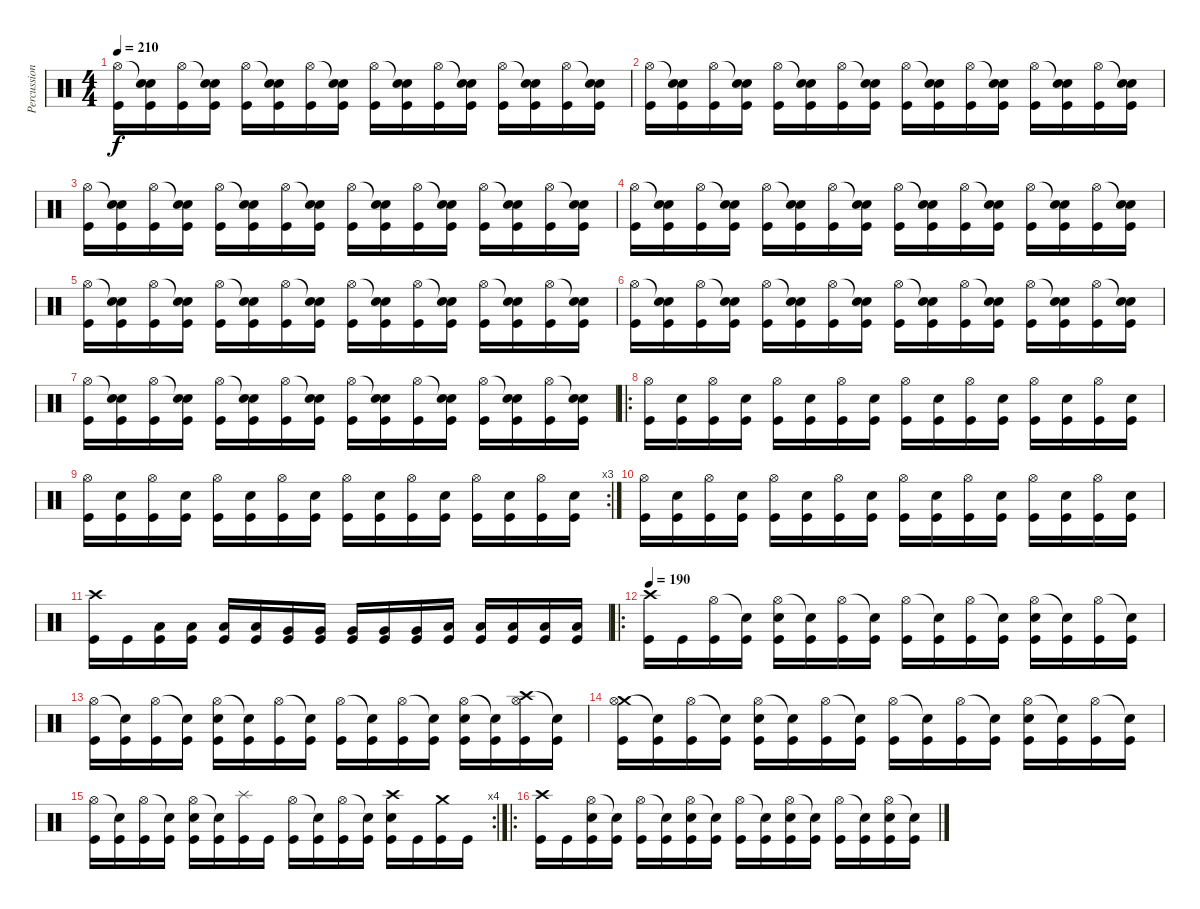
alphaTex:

\track ("Percussion" "Percussion") {instrument percussion}
\staff {score}
\articulation defaults
\ts (4 4)
\tempo 210
\clef neutral
\ks c
("Hi-Hat (open)" "Kick (hit)").16{dy f} ("Snare (hit)"{t} "Electric Snare (hit)" "Kick (hit)").16 ("Hi-Hat (open)" "Kick (hit)").16 ("Snare (hit)"{t} "Electric Snare (hit)" "Kick (hit)").16 ("Hi-Hat (open)" "Kick (hit)").16 ("Snare (hit)"{t} "Electric Snare (hit)" "Kick (hit)").16 ("Hi-Hat (open)" "Kick (hit)").16 ("Snare (hit)"{t} "Electric Snare (hit)" "Kick (hit)").16 ("Hi-Hat (open)" "Kick (hit)").16 ("Snare (hit)"{t} "Electric Snare (hit)" "Kick (hit)").16 ("Hi-Hat (open)" "Kick (hit)").16 ("Snare (hit)"{t} "Electric Snare (hit)" "Kick (hit)").16 ("Hi-Hat (open)" "Kick (hit)").16 ("Snare (hit)"{t} "Electric Snare (hit)" "Kick (hit)").16 ("Hi-Hat (open)" "Kick (hit)").16 ("Snare (hit)"{t} "Electric Snare (hit)" "Kick (hit)").16 |
("Hi-Hat (open)" "Kick (hit)").16 ("Snare (hit)"{t} "Electric Snare (hit)" "Kick (hit)").16 ("Hi-Hat (open)" "Kick (hit)").16 ("Snare (hit)"{t} "Electric Snare (hit)" "Kick (hit)").16 ("Hi-Hat (open)" "Kick (hit)").16 ("Snare (hit)"{t} "Electric Snare (hit)" "Kick (hit)").16 ("Hi-Hat (open)" "Kick (hit)").16 ("Snare (hit)"{t} "Electric Snare (hit)" "Kick (hit)").16 ("Hi-Hat (open)" "Kick (hit)").16 ("Snare (hit)"{t} "Electric Snare (hit)" "Kick (hit)").16 ("Hi-Hat (open)" "Kick (hit)").16 ("Snare (hit)"{t} "Electric Snare (hit)" "Kick (hit)").16 ("Hi-Hat (open)" "Kick (hit)").16 ("Snare (hit)"{t} "Electric Snare (hit)" "Kick (hit)").16 ("Hi-Hat (open)" "Kick (hit)").16 ("Snare (hit)"{t} "Electric Snare (hit)" "Kick (hit)").16 |
("Hi-Hat (open)" "Kick (hit)").16 ("Snare (hit)"{t} "Electric Snare (hit)" "Kick (hit)").16 ("Hi-Hat (open)" "Kick (hit)").16 ("Snare (hit)"{t} "Electric Snare (hit)" "Kick (hit)").16 ("Hi-Hat (open)" "Kick (hit)").16 ("Snare (hit)"{t} "Electric Snare (hit)" "Kick (hit)").16 ("Hi-Hat (open)" "Kick (hit)").16 ("Snare (hit)"{t} "Electric Snare (hit)" "Kick (hit)").16 ("Hi-Hat (open)" "Kick (hit)").16 ("Snare (hit)"{t} "Electric Snare (hit)" "Kick (hit)").16 ("Hi-Hat (open)" "Kick (hit)").16 ("Snare (hit)"{t} "Electric Snare (hit)" "Kick (hit)").16 ("Hi-Hat (open)" "Kick (hit)").16 ("Snare (hit)"{t} "Electric Snare (hit)" "Kick (hit)").16 ("Hi-Hat (open)" "Kick (hit)").16 ("Snare (hit)"{t} "Electric Snare (hit)" "Kick (hit)").16 |
("Hi-Hat (open)" "Kick (hit)").16 ("Snare (hit)"{t} "Electric Snare (hit)" "Kick (hit)").16 ("Hi-Hat (open)" "Kick (hit)").16 ("Snare (hit)"{t} "Electric Snare (hit)" "Kick (hit)").16 ("Hi-Hat (open)" "Kick (hit)").16 ("Snare (hit)"{t} "Electric Snare (hit)" "Kick (hit)").16 ("Hi-Hat (open)" "Kick (hit)").16 ("Snare (hit)"{t} "Electric Snare (hit)" "Kick (hit)").16 ("Hi-Hat (open)" "Kick (hit)").16 ("Snare (hit)"{t} "Electric Snare (hit)" "Kick (hit)").16 ("Hi-Hat (open)" "Kick (hit)").16 ("Snare (hit)"{t} "Electric Snare (hit)" "Kick (hit)").16 ("Hi-Hat (open)" "Kick (hit)").16 ("Snare (hit)"{t} "Electric Snare (hit)" "Kick (hit)").16 ("Hi-Hat (open)" "Kick (hit)").16 ("Snare (hit)"{t} "Electric Snare (hit)" "Kick (hit)").16 |
("Hi-Hat (open)" "Kick (hit)").16 ("Snare (hit)"{t} "Electric Snare (hit)" "Kick (hit)").16 ("Hi-Hat (open)" "Kick (hit)").16 ("Snare (hit)"{t} "Electric Snare (hit)" "Kick (hit)").16 ("Hi-Hat (open)" "Kick (hit)").16 ("Snare (hit)"{t} "Electric Snare (hit)" "Kick (hit)").16 ("Hi-Hat (open)" "Kick (hit)").16 ("Snare (hit)"{t} "Electric Snare (hit)" "Kick (hit)").16 ("Hi-Hat (open)" "Kick (hit)").16 ("Snare (hit)"{t} "Electric Snare (hit)" "Kick (hit)").16 ("Hi-Hat (open)" "Kick (hit)").16 ("Snare (hit)"{t} "Electric Snare (hit)" "Kick (hit)").16 ("Hi-Hat (open)" "Kick (hit)").16 ("Snare (hit)"{t} "Electric Snare (hit)" "Kick (hit)").16 ("Hi-Hat (open)" "Kick (hit)").16 ("Snare (hit)"{t} "Electric Snare (hit)" "Kick (hit)").16 |
("Hi-Hat (open)" "Kick (hit)").16 ("Snare (hit)"{t} "Electric Snare (hit)" "Kick (hit)").16 ("Hi-Hat (open)" "Kick (hit)").16 ("Snare (hit)"{t} "Electric Snare (hit)" "Kick (hit)").16 ("Hi-Hat (open)" "Kick (hit)").16 ("Snare (hit)"{t} "Electric Snare (hit)" "Kick (hit)").16 ("Hi-Hat (open)" "Kick (hit)").16 ("Snare (hit)"{t} "Electric Snare (hit)" "Kick (hit)").16 ("Hi-Hat (open)" "Kick (hit)").16 ("Snare (hit)"{t} "Electric Snare (hit)" "Kick (hit)").16 ("Hi-Hat (open)" "Kick (hit)").16 ("Snare (hit)"{t} "Electric Snare (hit)" "Kick (hit)").16 ("Hi-Hat (open)" "Kick (hit)").16 ("Snare (hit)"{t} "Electric Snare (hit)" "Kick (hit)").16 ("Hi-Hat (open)" "Kick (hit)").16 ("Snare (hit)"{t} "Electric Snare (hit)" "Kick (hit)").16 |
("Hi-Hat (open)" "Kick (hit)").16 ("Snare (hit)"{t} "Electric Snare (hit)" "Kick (hit)").16 ("Hi-Hat (open)" "Kick (hit)").16 ("Snare (hit)"{t} "Electric Snare (hit)" "Kick (hit)").16 ("Hi-Hat (open)" "Kick (hit)").16 ("Snare (hit)"{t} "Electric Snare (hit)" "Kick (hit)").16 ("Hi-Hat (open)" "Kick (hit)").16 ("Snare (hit)"{t} "Electric Snare (hit)" "Kick (hit)").16 ("Hi-Hat (open)" "Kick (hit)").16 ("Snare (hit)"{t} "Electric Snare (hit)" "Kick (hit)").16 ("Hi-Hat (open)" "Kick (hit)").16 ("Snare (hit)"{t} "Electric Snare (hit)" "Kick (hit)").16 ("Hi-Hat (open)" "Kick (hit)").16 ("Snare (hit)"{t} "Electric Snare (hit)" "Kick (hit)").16 ("Hi-Hat (open)" "Kick (hit)").16 ("Snare (hit)"{t} "Electric Snare (hit)" "Kick (hit)").16 |
\ro
("Hi-Hat (open)" "Kick (hit)").16 ("Electric Snare (hit)" "Kick (hit)").16 ("Hi-Hat (open)" "Kick (hit)").16 ("Electric Snare (hit)" "Kick (hit)").16 ("Hi-Hat (open)" "Kick (hit)").16 ("Electric Snare (hit)" "Kick (hit)").16 ("Hi-Hat (open)" "Kick (hit)").16 ("Electric Snare (hit)" "Kick (hit)").16 ("Hi-Hat (open)" "Kick (hit)").16 ("Electric Snare (hit)" "Kick (hit)").16 ("Hi-Hat (open)" "Kick (hit)").16 ("Electric Snare (hit)" "Kick (hit)").16 ("Hi-Hat (open)" "Kick (hit)").16 ("Electric Snare (hit)" "Kick (hit)").16 ("Hi-Hat (open)" "Kick (hit)").16 ("Electric Snare (hit)" "Kick (hit)").16 |
\rc 3
("Hi-Hat (open)" "Kick (hit)").16 ("Electric Snare (hit)" "Kick (hit)").16 ("Hi-Hat (open)" "Kick (hit)").16 ("Electric Snare (hit)" "Kick (hit)").16 ("Hi-Hat (open)" "Kick (hit)").16 ("Electric Snare (hit)" "Kick (hit)").16 ("Hi-Hat (open)" "Kick (hit)").16 ("Electric Snare (hit)" "Kick (hit)").16 ("Hi-Hat (open)" "Kick (hit)").16 ("Electric Snare (hit)" "Kick (hit)").16 ("Hi-Hat (open)" "Kick (hit)").16 ("Electric Snare (hit)" "Kick (hit)").16 ("Hi-Hat (open)" "Kick (hit)").16 ("Electric Snare (hit)" "Kick (hit)").16 ("Hi-Hat (open)" "Kick (hit)").16 ("Electric Snare (hit)" "Kick (hit)").16 |
("Hi-Hat (open)" "Kick (hit)").16 ("Electric Snare (hit)" "Kick (hit)").16 ("Hi-Hat (open)" "Kick (hit)").16 ("Electric Snare (hit)" "Kick (hit)").16 ("Hi-Hat (open)" "Kick (hit)").16 ("Electric Snare (hit)" "Kick (hit)").16 ("Hi-Hat (open)" "Kick (hit)").16 ("Electric Snare (hit)" "Kick (hit)").16 ("Hi-Hat (open)" "Kick (hit)").16 ("Electric Snare (hit)" "Kick (hit)").16 ("Hi-Hat (open)" "Kick (hit)").16 ("Electric Snare (hit)" "Kick (hit)").16 ("Hi-Hat (open)" "Kick (hit)").16 ("Electric Snare (hit)" "Kick (hit)").16 ("Hi-Hat (open)" "Kick (hit)").16 ("Electric Snare (hit)" "Kick (hit)").16 |
("Crash high (hit)" "Kick (hit)").16 "Kick (hit)".16 ("Low Tom (hit)" "Kick (hit)").16 ("Low Tom (hit)" "Kick (hit)").16 ("Low Tom (hit)" "Kick (hit)").16 ("Low Tom (hit)" "Kick (hit)").16 ("Very Low Tom (hit)" "Kick (hit)").16 ("Very Low Tom (hit)" "Kick (hit)").16 ("Very Low Tom (hit)" "Kick (hit)").16 ("Very Low Tom (hit)" "Kick (hit)").16 ("Very Low Tom (hit)" "Kick (hit)").16 ("Low Floor Tom (hit)" "Kick (hit)").16 ("Low Floor Tom (hit)" "Kick (hit)").16 ("Low Floor Tom (hit)" "Kick (hit)").16 ("Low Floor Tom (hit)" "Kick (hit)").16 ("Low Floor Tom (hit)" "Kick (hit)").16 |
\ro
\tempo 190
("Crash high (hit)" "Kick (hit)").16 "Kick (hit)".16 ("Hi-Hat (open)" "Kick (hit)").16 ("Snare (hit)"{t} "Kick (hit)").16 ("Hi-Hat (open)" "Electric Snare (hit)" "Kick (hit)").16 ("Snare (hit)"{t} "Kick (hit)").16 ("Hi-Hat (open)" "Kick (hit)").16 ("Snare (hit)"{t} "Kick (hit)").16 ("Hi-Hat (open)" "Kick (hit)").16 ("Snare (hit)"{t} "Kick (hit)").16 ("Hi-Hat (open)" "Kick (hit)").16 ("Snare (hit)"{t} "Kick (hit)").16 ("Hi-Hat (open)" "Electric Snare (hit)" "Kick (hit)").16 ("Snare (hit)"{t} "Kick (hit)").16 ("Hi-Hat (open)" "Kick (hit)").16 ("Snare (hit)"{t} "Kick (hit)").16 |
("Hi-Hat (open)" "Kick (hit)").16 ("Snare (hit)"{t} "Kick (hit)").16 ("Hi-Hat (open)" "Kick (hit)").16 ("Snare (hit)"{t} "Kick (hit)").16 ("Hi-Hat (open)" "Electric Snare (hit)" "Kick (hit)").16 ("Snare (hit)"{t} "Kick (hit)").16 ("Hi-Hat (open)" "Kick (hit)").16 ("Snare (hit)"{t} "Kick (hit)").16 ("Hi-Hat (open)" "Kick (hit)").16 ("Snare (hit)"{t} "Kick (hit)").16 ("Hi-Hat (open)" "Kick (hit)").16 ("Snare (hit)"{t} "Kick (hit)").16 ("Hi-Hat (open)" "Electric Snare (hit)" "Kick (hit)").16 ("Snare (hit)"{t} "Kick (hit)").16 ("Crash high (hit)" "Hi-Hat (open)" "Kick (hit)").16 ("Snare (hit)"{t} "Kick (hit)").16 |
("Crash medium (hit)" "Hi-Hat (open)" "Kick (hit)").16 ("Snare (hit)"{t} "Kick (hit)").16 ("Hi-Hat (open)" "Kick (hit)").16 ("Snare (hit)"{t} "Kick (hit)").16 ("Hi-Hat (open)" "Electric Snare (hit)" "Kick (hit)").16 ("Snare (hit)"{t} "Kick (hit)").16 ("Hi-Hat (open)" "Kick (hit)").16 ("Snare (hit)"{t} "Kick (hit)").16 ("Hi-Hat (open)" "Kick (hit)").16 ("Snare (hit)"{t} "Kick (hit)").16 ("Hi-Hat (open)" "Kick (hit)").16 ("Snare (hit)"{t} "Kick (hit)").16 ("Hi-Hat (open)" "Electric Snare (hit)" "Kick (hit)").16 ("Snare (hit)"{t} "Kick (hit)").16 ("Hi-Hat (open)" "Kick (hit)").16 ("Snare (hit)"{t} "Kick (hit)").16 |
\rc 4
("Hi-Hat (open)" "Kick (hit)").16 ("Snare (hit)"{t} "Kick (hit)").16 ("Hi-Hat (open)" "Kick (hit)").16 ("Snare (hit)"{t} "Kick (hit)").16 ("Hi-Hat (open)" "Electric Snare (hit)" "Kick (hit)").16 ("Snare (hit)"{t} "Kick (hit)").16 ("Splash (hit)" "Kick (hit)").16 "Kick (hit)".16 ("Hi-Hat (open)" "Kick (hit)").16 ("Snare (hit)"{t} "Kick (hit)").16 ("Hi-Hat (open)" "Kick (hit)").16 ("Snare (hit)"{t} "Kick (hit)").16 ("Crash high (hit)" "Electric Snare (hit)" "Kick (hit)").16 "Kick (hit)".16 ("Crash medium (hit)" "Kick (hit)").16 "Kick (hit)".16 |
\ro
("Crash high (hit)" "Kick (hit)").16 "Kick (hit)".16 ("Hi-Hat (open)" "Electric Snare (hit)" "Kick (hit)").16 ("Snare (hit)"{t} "Kick (hit)").16 ("Hi-Hat (open)" "Kick (hit)").16 ("Snare (hit)"{t} "Kick (hit)").16 ("Hi-Hat (open)" "Electric Snare (hit)" "Kick (hit)").16 ("Snare (hit)"{t} "Kick (hit)").16 ("Hi-Hat (open)" "Kick (hit)").16 ("Snare (hit)"{t} "Kick (hit)").16 ("Hi-Hat (open)" "Electric Snare (hit)" "Kick (hit)").16 ("Snare (hit)"{t} "Kick (hit)").16 ("Hi-Hat (open)" "Kick (hit)").16 ("Snare (hit)"{t} "Kick (hit)").16 ("Hi-Hat (open)" "Electric Snare (hit)" "Kick (hit)").16 ("Snare (hit)"{t} "Kick (hit)").16
